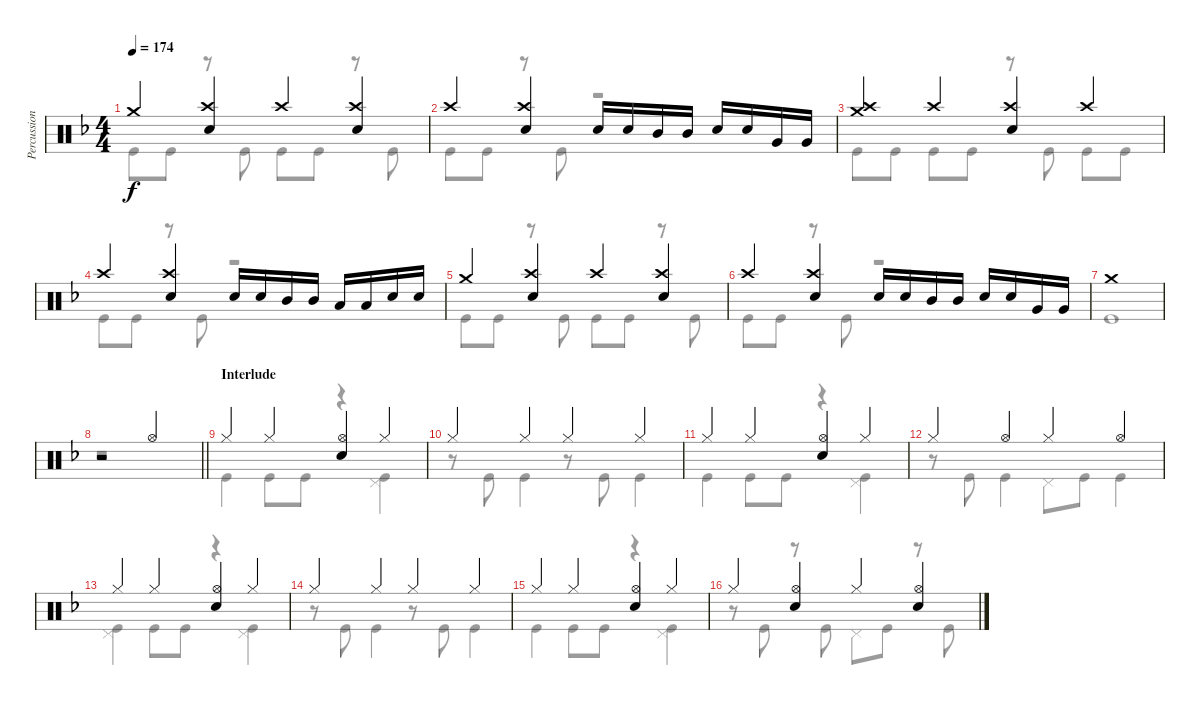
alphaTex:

\track ("Percussion" "Percussion") {instrument percussion}
\staff {score}
\articulation defaults
\voice
\ts (4 4)
\tempo 174
\clef neutral
\ks dminor "Crash medium (hit)".4{dy f}
("Crash high (hit)" "Electric Snare (hit)").4 "Crash high (hit)".4 ("Crash high (hit)" "Electric Snare (hit)").4 |
"Crash high (hit)".4 ("Crash high (hit)" "Electric Snare (hit)").4 "Electric Snare (hit)".16 "Electric Snare (hit)".16 "Mid Tom (hit)".16 "Mid Tom (hit)".16 "Electric Snare (hit)".16 "Electric Snare (hit)".16 "Very Low Tom (hit)".16 "Very Low Tom (hit)".16 |
("Crash medium (hit)" "Crash high (hit)").4 "Crash high (hit)".4 ("Crash high (hit)" "Electric Snare (hit)").4 "Crash high (hit)".4 |
"Crash high (hit)".4 ("Crash high (hit)" "Electric Snare (hit)").4 "Electric Snare (hit)".16 "Electric Snare (hit)".16 "Mid Tom (hit)".16 "Mid Tom (hit)".16 "Low Tom (hit)".16 "Low Tom (hit)".16 "Electric Snare (hit)".16 "Electric Snare (hit)".16 |
"Crash medium (hit)".4 ("Crash high (hit)" "Electric Snare (hit)").4 "Crash high (hit)".4 ("Crash high (hit)" "Electric Snare (hit)").4 |
"Crash high (hit)".4 ("Crash high (hit)" "Electric Snare (hit)").4 "Electric Snare (hit)".16 "Electric Snare (hit)".16 "Mid Tom (hit)".16 "Mid Tom (hit)".16 "Electric Snare (hit)".16 "Electric Snare (hit)".16 "Very Low Tom (hit)".16 "Very Low Tom (hit)".16 |
"Crash medium (hit)".1 |
\barLineRight lightlight
r.2 "Hi-Hat (open)".2 |
\section ("" "Interlude")
"Hi-Hat (closed)".4 "Hi-Hat (closed)".4 ("Hi-Hat (open)" "Electric Snare (hit)").4 "Hi-Hat (closed)".4 |
"Hi-Hat (closed)".4 "Hi-Hat (closed)".4 "Hi-Hat (closed)".4 "Hi-Hat (closed)".4 |
"Hi-Hat (closed)".4 "Hi-Hat (closed)".4 ("Hi-Hat (open)" "Electric Snare (hit)").4 "Hi-Hat (closed)".4 |
"Hi-Hat (closed)".4 "Hi-Hat (open)".4 "Hi-Hat (closed)".4 "Hi-Hat (open)".4 |
"Hi-Hat (closed)".4 "Hi-Hat (closed)".4 ("Hi-Hat (open)" "Electric Snare (hit)").4 "Hi-Hat (closed)".4 |
"Hi-Hat (closed)".4 "Hi-Hat (closed)".4 "Hi-Hat (closed)".4 "Hi-Hat (closed)".4 |
"Hi-Hat (closed)".4 "Hi-Hat (closed)".4 ("Hi-Hat (open)" "Electric Snare (hit)").4 "Hi-Hat (closed)".4 |
"Hi-Hat (closed)".4 ("Hi-Hat (open)" "Electric Snare (hit)").4 "Hi-Hat (closed)".4 ("Hi-Hat (open)" "Electric Snare (hit)").4
\voice
\clef neutral
\ottava regular
\simile none
\ks dminor "Kick (hit)".8{dy f} "Kick (hit)".8
r.8 "Kick (hit)".8 "Kick (hit)".8 "Kick (hit)".8 r.8 "Kick (hit)".8 |
"Kick (hit)".8 "Kick (hit)".8 r.8 "Kick (hit)".8 r.2 |
"Kick (hit)".8 "Kick (hit)".8 "Kick (hit)".8 "Kick (hit)".8 r.8 "Kick (hit)".8 "Kick (hit)".8 "Kick (hit)".8 |
"Kick (hit)".8 "Kick (hit)".8 r.8 "Kick (hit)".8 r.2 |
"Kick (hit)".8 "Kick (hit)".8 r.8 "Kick (hit)".8 "Kick (hit)".8 "Kick (hit)".8 r.8 "Kick (hit)".8 |
"Kick (hit)".8 "Kick (hit)".8 r.8 "Kick (hit)".8 r.2 |
"Kick (hit)".1 |
\barLineRight lightlight
r.1 |
"Kick (hit)".4 "Kick (hit)".8 "Kick (hit)".8 r.4 ("Pedal Hi-Hat (hit)" "Kick (hit)").4 |
r.8 "Kick (hit)".8 "Kick (hit)".4 r.8 "Kick (hit)".8 "Kick (hit)".4 |
"Kick (hit)".4 "Kick (hit)".8 "Kick (hit)".8 r.4 ("Pedal Hi-Hat (hit)" "Kick (hit)").4 |
r.8 "Kick (hit)".8 "Kick (hit)".4 "Pedal Hi-Hat (hit)".8 "Kick (hit)".8 "Kick (hit)".4 |
("Pedal Hi-Hat (hit)" "Kick (hit)").4 "Kick (hit)".8 "Kick (hit)".8 r.4 ("Pedal Hi-Hat (hit)" "Kick (hit)").4 |
r.8 "Kick (hit)".8 "Kick (hit)".4 r.8 "Kick (hit)".8 "Kick (hit)".4 |
"Kick (hit)".4 "Kick (hit)".8 "Kick (hit)".8 r.4 ("Pedal Hi-Hat (hit)" "Kick (hit)").4 |
r.8 "Kick (hit)".8 r.8 "Kick (hit)".8 "Pedal Hi-Hat (hit)".8 "Kick (hit)".8 r.8 "Kick (hit)".8
